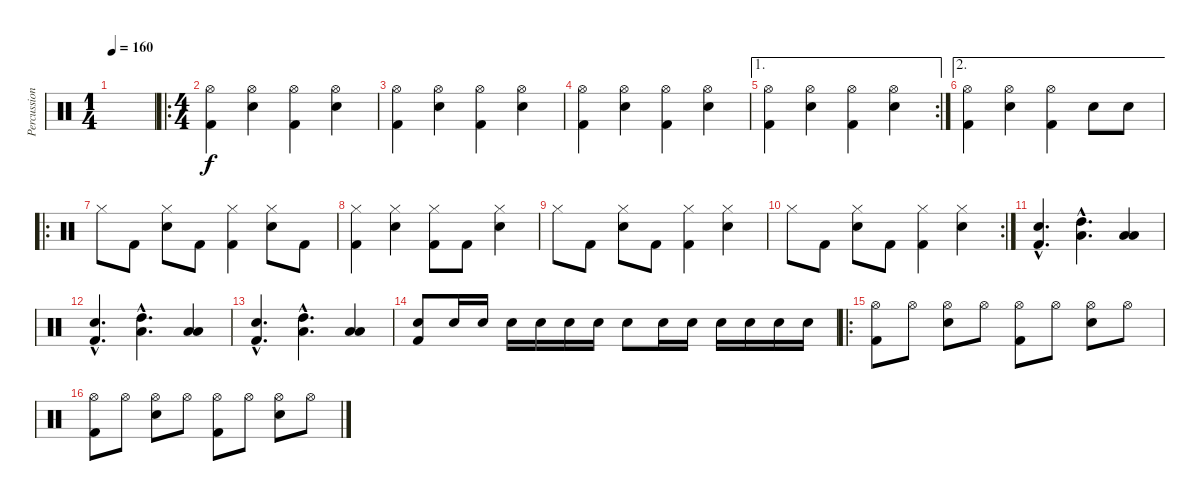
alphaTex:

\track ("Percussions" "Percussion") {instrument percussion}
\staff {score}
\articulation defaults
\ts (1 4)
\tempo 160
\clef neutral
\ks c
|
\ro
\ts (4 4)
("Hi-Hat (open)" "Kick (hit) 2").4 ("Hi-Hat (open)" "Snare (hit) 2").4 ("Hi-Hat (open)" "Kick (hit) 2").4 ("Hi-Hat (open)" "Snare (hit) 2").4 |
("Hi-Hat (open)" "Kick (hit) 2").4 ("Hi-Hat (open)" "Snare (hit) 2").4 ("Hi-Hat (open)" "Kick (hit) 2").4 ("Hi-Hat (open)" "Snare (hit) 2").4 |
("Hi-Hat (open)" "Kick (hit) 2").4 ("Hi-Hat (open)" "Snare (hit) 2").4 ("Hi-Hat (open)" "Kick (hit) 2").4 ("Hi-Hat (open)" "Snare (hit) 2").4 |
\ae 1
\rc 2
("Hi-Hat (open)" "Kick (hit) 2").4 ("Hi-Hat (open)" "Snare (hit) 2").4 ("Hi-Hat (open)" "Kick (hit) 2").4 ("Hi-Hat (open)" "Snare (hit) 2").4 |
\ae 2
("Hi-Hat (open)" "Kick (hit) 2").4 ("Hi-Hat (open)" "Snare (hit) 2").4 ("Hi-Hat (open)" "Kick (hit) 2").4 "Snare (hit) 2".8 "Snare (hit) 2".8 |
\ro "Hi-Hat (closed)".8 "Kick (hit) 2".8
("Hi-Hat (closed)" "Snare (hit) 2").8 "Kick (hit) 2".8 ("Hi-Hat (closed)" "Kick (hit) 2").4 ("Hi-Hat (closed)" "Snare (hit) 2").8 "Kick (hit) 2".8 |
("Hi-Hat (closed)" "Kick (hit) 2").4 ("Hi-Hat (closed)" "Snare (hit) 2").4 ("Hi-Hat (closed)" "Kick (hit) 2").8 "Kick (hit) 2".8 ("Hi-Hat (closed)" "Snare (hit) 2").4 |
"Hi-Hat (closed)".8 "Kick (hit) 2".8 ("Hi-Hat (closed)" "Snare (hit) 2").8 "Kick (hit) 2".8 ("Hi-Hat (closed)" "Kick (hit) 2").4 ("Hi-Hat (closed)" "Snare (hit) 2").4 |
\rc 2 "Hi-Hat (closed)".8 "Kick (hit) 2".8
("Hi-Hat (closed)" "Snare (hit) 2").8 "Kick (hit) 2".8 ("Hi-Hat (closed)" "Kick (hit) 2").4 ("Hi-Hat (closed)" "Snare (hit) 2").4 |
("Snare (hit) 2"{hac} "Kick (hit) 2"{hac}).4{d} ("Low Floor Tom (hit)"{hac} "High Tom (hit)"{hac}).4{d} ("Low Floor Tom (hit)" "Low Tom (hit)").4 |
("Snare (hit) 2"{hac} "Kick (hit) 2"{hac}).4{d} ("Low Floor Tom (hit)"{hac} "High Tom (hit)"{hac}).4{d} ("Low Floor Tom (hit)" "Low Tom (hit)").4 |
("Snare (hit) 2"{hac} "Kick (hit) 2"{hac}).4{d} ("Low Floor Tom (hit)"{hac} "High Tom (hit)"{hac}).4{d} ("Low Floor Tom (hit)" "Low Tom (hit)").4 |
("Snare (hit) 2" "Kick (hit) 2").8 "Snare (hit) 2".16 "Snare (hit) 2".16 "Snare (hit) 2".16 "Snare (hit) 2".16 "Snare (hit) 2".16 "Snare (hit) 2".16 "Snare (hit) 2".8 "Snare (hit) 2".16 "Snare (hit) 2".16 "Snare (hit) 2".16 "Snare (hit) 2".16 "Snare (hit) 2".16 "Snare (hit) 2".16 |
\ro
("Hi-Hat (open)" "Kick (hit) 2").8 "Hi-Hat (open)".8 ("Hi-Hat (open)" "Snare (hit) 2").8 "Hi-Hat (open)".8 ("Hi-Hat (open)" "Kick (hit) 2").8 "Hi-Hat (open)".8 ("Hi-Hat (open)" "Snare (hit) 2").8 "Hi-Hat (open)".8 |
("Hi-Hat (open)" "Kick (hit) 2").8 "Hi-Hat (open)".8 ("Hi-Hat (open)" "Snare (hit) 2").8 "Hi-Hat (open)".8 ("Hi-Hat (open)" "Kick (hit) 2").8 "Hi-Hat (open)".8 ("Hi-Hat (open)" "Snare (hit) 2").8 "Hi-Hat (open)".8
